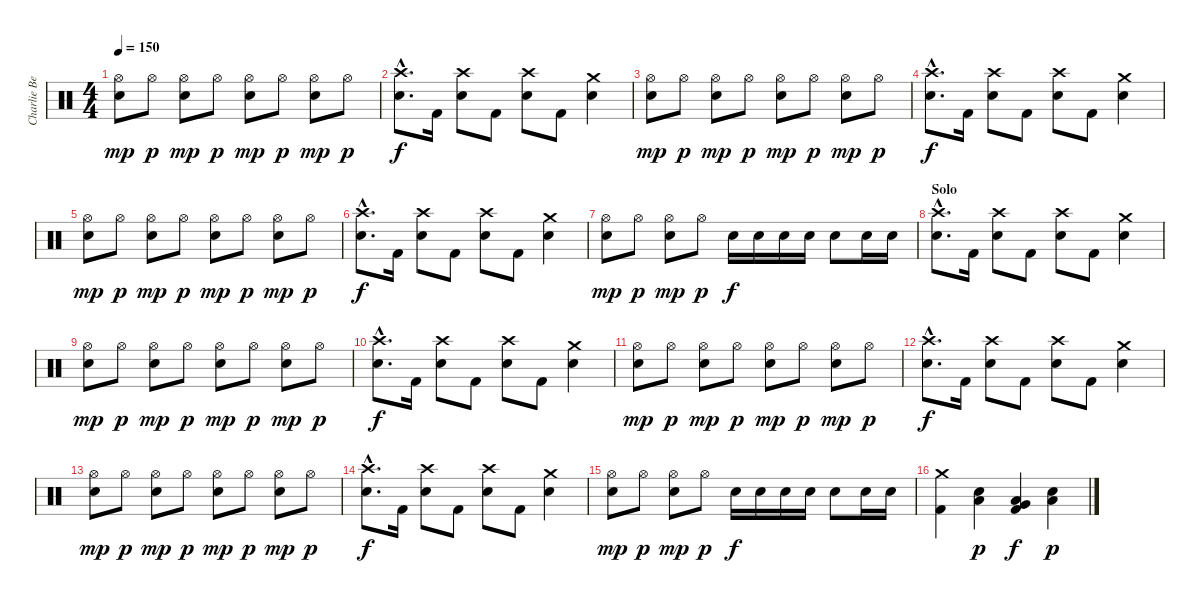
\track ("Charlie Benante" "Charlie Be") {instrument percussion}
\staff {score}
\articulation defaults
\ts (4 4)
\tempo 150
\clef neutral
\ks c
("Hi-Hat (open)" "Snare (hit) 2").8{dy mp} "Hi-Hat (open)".8{dy p} ("Hi-Hat (open)" "Snare (hit) 2").8{dy mp} "Hi-Hat (open)".8{dy p} ("Hi-Hat (open)" "Snare (hit) 2").8{dy mp} "Hi-Hat (open)".8{dy p} ("Hi-Hat (open)" "Snare (hit) 2").8{dy mp} "Hi-Hat (open)".8{dy p} |
("Crash high (hit)"{hac} "Snare (hit) 2"{hac}).8{d dy f} "Kick (hit) 2".16 ("Crash high (hit)" "Snare (hit) 2").8 "Kick (hit) 2".8 ("Crash high (hit)" "Snare (hit) 2").8 "Kick (hit) 2".8 ("Crash medium (hit)" "Snare (hit) 2").4 |
("Hi-Hat (open)" "Snare (hit) 2").8{dy mp} "Hi-Hat (open)".8{dy p} ("Hi-Hat (open)" "Snare (hit) 2").8{dy mp} "Hi-Hat (open)".8{dy p} ("Hi-Hat (open)" "Snare (hit) 2").8{dy mp} "Hi-Hat (open)".8{dy p} ("Hi-Hat (open)" "Snare (hit) 2").8{dy mp} "Hi-Hat (open)".8{dy p} |
("Crash high (hit)"{hac} "Snare (hit) 2"{hac}).8{d dy f} "Kick (hit) 2".16 ("Crash high (hit)" "Snare (hit) 2").8 "Kick (hit) 2".8 ("Crash high (hit)" "Snare (hit) 2").8 "Kick (hit) 2".8 ("Crash medium (hit)" "Snare (hit) 2").4 |
("Hi-Hat (open)" "Snare (hit) 2").8{dy mp} "Hi-Hat (open)".8{dy p} ("Hi-Hat (open)" "Snare (hit) 2").8{dy mp} "Hi-Hat (open)".8{dy p} ("Hi-Hat (open)" "Snare (hit) 2").8{dy mp} "Hi-Hat (open)".8{dy p} ("Hi-Hat (open)" "Snare (hit) 2").8{dy mp} "Hi-Hat (open)".8{dy p} |
("Crash high (hit)"{hac} "Snare (hit) 2"{hac}).8{d dy f} "Kick (hit) 2".16 ("Crash high (hit)" "Snare (hit) 2").8 "Kick (hit) 2".8 ("Crash high (hit)" "Snare (hit) 2").8 "Kick (hit) 2".8 ("Crash medium (hit)" "Snare (hit) 2").4 |
("Hi-Hat (open)" "Snare (hit) 2").8{dy mp} "Hi-Hat (open)".8{dy p} ("Hi-Hat (open)" "Snare (hit) 2").8{dy mp} "Hi-Hat (open)".8{dy p} "Snare (hit) 2".16{dy f} "Snare (hit) 2".16 "Snare (hit) 2".16 "Snare (hit) 2".16 "Snare (hit) 2".8 "Snare (hit) 2".16 "Snare (hit) 2".16 |
\section ("" "Solo")
("Crash high (hit)"{hac} "Snare (hit) 2"{hac}).8{d} "Kick (hit) 2".16 ("Crash high (hit)" "Snare (hit) 2").8 "Kick (hit) 2".8 ("Crash high (hit)" "Snare (hit) 2").8 "Kick (hit) 2".8 ("Crash medium (hit)" "Snare (hit) 2").4 |
("Hi-Hat (open)" "Snare (hit) 2").8{dy mp} "Hi-Hat (open)".8{dy p} ("Hi-Hat (open)" "Snare (hit) 2").8{dy mp} "Hi-Hat (open)".8{dy p} ("Hi-Hat (open)" "Snare (hit) 2").8{dy mp} "Hi-Hat (open)".8{dy p} ("Hi-Hat (open)" "Snare (hit) 2").8{dy mp} "Hi-Hat (open)".8{dy p} |
("Crash high (hit)"{hac} "Snare (hit) 2"{hac}).8{d dy f} "Kick (hit) 2".16 ("Crash high (hit)" "Snare (hit) 2").8 "Kick (hit) 2".8 ("Crash high (hit)" "Snare (hit) 2").8 "Kick (hit) 2".8 ("Crash medium (hit)" "Snare (hit) 2").4 |
("Hi-Hat (open)" "Snare (hit) 2").8{dy mp} "Hi-Hat (open)".8{dy p} ("Hi-Hat (open)" "Snare (hit) 2").8{dy mp} "Hi-Hat (open)".8{dy p} ("Hi-Hat (open)" "Snare (hit) 2").8{dy mp} "Hi-Hat (open)".8{dy p} ("Hi-Hat (open)" "Snare (hit) 2").8{dy mp} "Hi-Hat (open)".8{dy p} |
("Crash high (hit)"{hac} "Snare (hit) 2"{hac}).8{d dy f} "Kick (hit) 2".16 ("Crash high (hit)" "Snare (hit) 2").8 "Kick (hit) 2".8 ("Crash high (hit)" "Snare (hit) 2").8 "Kick (hit) 2".8 ("Crash medium (hit)" "Snare (hit) 2").4 |
("Hi-Hat (open)" "Snare (hit) 2").8{dy mp} "Hi-Hat (open)".8{dy p} ("Hi-Hat (open)" "Snare (hit) 2").8{dy mp} "Hi-Hat (open)".8{dy p} ("Hi-Hat (open)" "Snare (hit) 2").8{dy mp} "Hi-Hat (open)".8{dy p} ("Hi-Hat (open)" "Snare (hit) 2").8{dy mp} "Hi-Hat (open)".8{dy p} |
("Crash high (hit)"{hac} "Snare (hit) 2"{hac}).8{d dy f} "Kick (hit) 2".16 ("Crash high (hit)" "Snare (hit) 2").8 "Kick (hit) 2".8 ("Crash high (hit)" "Snare (hit) 2").8 "Kick (hit) 2".8 ("Crash medium (hit)" "Snare (hit) 2").4 |
("Hi-Hat (open)" "Snare (hit) 2").8{dy mp} "Hi-Hat (open)".8{dy p} ("Hi-Hat (open)" "Snare (hit) 2").8{dy mp} "Hi-Hat (open)".8{dy p} "Snare (hit) 2".16{dy f} "Snare (hit) 2".16 "Snare (hit) 2".16 "Snare (hit) 2".16 "Snare (hit) 2".8 "Snare (hit) 2".16 "Snare (hit) 2".16 |
("Kick (hit) 2" "Crash medium (hit)").4 ("Snare (hit) 2" "Low Tom (hit)").4{dy p} ("Kick (hit) 2" "Low Tom (hit)" "Very Low Tom (hit)").4{dy f} ("Snare (hit) 2" "Low Tom (hit)").4{dy p}
